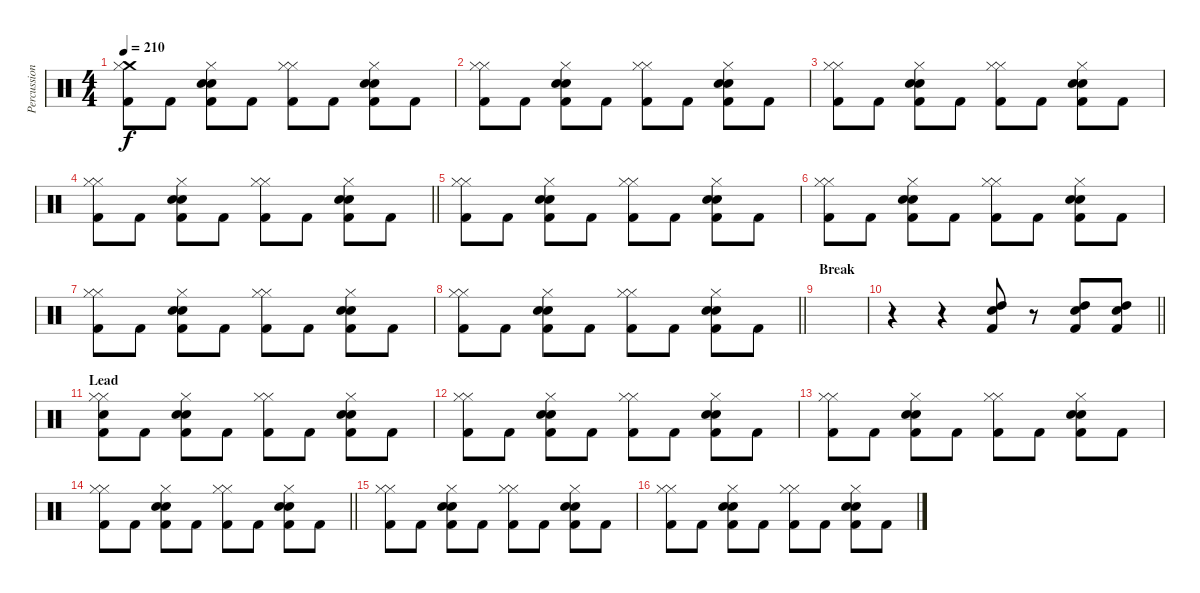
\track ("Percussion" "Percussion") {instrument percussion}
\staff {score}
\articulation defaults
\ts (4 4)
\tempo 210
\clef neutral
\ks c
("Crash medium (hit)" "Hi-Hat (closed)" "Kick (hit) 2").8{dy f} "Kick (hit) 2".8 ("Hi-Hat (closed)" "Snare (hit) 2" "Electric Snare (hit)" "Kick (hit) 2").8 "Kick (hit) 2".8 ("Hi-Hat (closed)" "Hi-Hat (closed)" "Kick (hit) 2").8 "Kick (hit) 2".8 ("Hi-Hat (closed)" "Snare (hit) 2" "Electric Snare (hit)" "Kick (hit) 2").8 "Kick (hit) 2".8 |
("Hi-Hat (closed)" "Hi-Hat (closed)" "Kick (hit) 2").8 "Kick (hit) 2".8 ("Hi-Hat (closed)" "Snare (hit) 2" "Electric Snare (hit)" "Kick (hit) 2").8 "Kick (hit) 2".8 ("Hi-Hat (closed)" "Hi-Hat (closed)" "Kick (hit) 2").8 "Kick (hit) 2".8 ("Hi-Hat (closed)" "Snare (hit) 2" "Electric Snare (hit)" "Kick (hit) 2").8 "Kick (hit) 2".8 |
("Hi-Hat (closed)" "Hi-Hat (closed)" "Kick (hit) 2").8 "Kick (hit) 2".8 ("Hi-Hat (closed)" "Snare (hit) 2" "Electric Snare (hit)" "Kick (hit) 2").8 "Kick (hit) 2".8 ("Hi-Hat (closed)" "Hi-Hat (closed)" "Kick (hit) 2").8 "Kick (hit) 2".8 ("Hi-Hat (closed)" "Snare (hit) 2" "Electric Snare (hit)" "Kick (hit) 2").8 "Kick (hit) 2".8 |
\barLineRight lightlight
("Hi-Hat (closed)" "Hi-Hat (closed)" "Kick (hit) 2").8 "Kick (hit) 2".8 ("Hi-Hat (closed)" "Snare (hit) 2" "Electric Snare (hit)" "Kick (hit) 2").8 "Kick (hit) 2".8 ("Hi-Hat (closed)" "Hi-Hat (closed)" "Kick (hit) 2").8 "Kick (hit) 2".8 ("Hi-Hat (closed)" "Snare (hit) 2" "Electric Snare (hit)" "Kick (hit) 2").8 "Kick (hit) 2".8 |
("Hi-Hat (closed)" "Hi-Hat (closed)" "Kick (hit) 2").8 "Kick (hit) 2".8 ("Hi-Hat (closed)" "Snare (hit) 2" "Electric Snare (hit)" "Kick (hit) 2").8 "Kick (hit) 2".8 ("Hi-Hat (closed)" "Hi-Hat (closed)" "Kick (hit) 2").8 "Kick (hit) 2".8 ("Hi-Hat (closed)" "Snare (hit) 2" "Electric Snare (hit)" "Kick (hit) 2").8 "Kick (hit) 2".8 |
("Hi-Hat (closed)" "Hi-Hat (closed)" "Kick (hit) 2").8 "Kick (hit) 2".8 ("Hi-Hat (closed)" "Snare (hit) 2" "Electric Snare (hit)" "Kick (hit) 2").8 "Kick (hit) 2".8 ("Hi-Hat (closed)" "Hi-Hat (closed)" "Kick (hit) 2").8 "Kick (hit) 2".8 ("Hi-Hat (closed)" "Snare (hit) 2" "Electric Snare (hit)" "Kick (hit) 2").8 "Kick (hit) 2".8 |
("Hi-Hat (closed)" "Hi-Hat (closed)" "Kick (hit) 2").8 "Kick (hit) 2".8 ("Hi-Hat (closed)" "Snare (hit) 2" "Electric Snare (hit)" "Kick (hit) 2").8 "Kick (hit) 2".8 ("Hi-Hat (closed)" "Hi-Hat (closed)" "Kick (hit) 2").8 "Kick (hit) 2".8 ("Hi-Hat (closed)" "Snare (hit) 2" "Electric Snare (hit)" "Kick (hit) 2").8 "Kick (hit) 2".8 |
\barLineRight lightlight
("Hi-Hat (closed)" "Hi-Hat (closed)" "Kick (hit) 2").8 "Kick (hit) 2".8 ("Hi-Hat (closed)" "Snare (hit) 2" "Electric Snare (hit)" "Kick (hit) 2").8 "Kick (hit) 2".8 ("Hi-Hat (closed)" "Hi-Hat (closed)" "Kick (hit) 2").8 "Kick (hit) 2".8 ("Hi-Hat (closed)" "Snare (hit) 2" "Electric Snare (hit)" "Kick (hit) 2").8 "Kick (hit) 2".8 |
\section ("" "Break")
|
\barLineRight lightlight
r.4 r.4 ("Electric Snare (hit)" "High Tom (hit)" "Kick (hit) 2").8 r.8 ("Electric Snare (hit)" "High Tom (hit)" "Kick (hit) 2").8 ("Electric Snare (hit)" "High Tom (hit)" "Kick (hit) 2").8 |
\section ("" "Lead")
("Hi-Hat (closed)" "Hi-Hat (closed)" "Snare (hit)" "Kick (hit) 2").8 "Kick (hit) 2".8 ("Hi-Hat (closed)" "Snare (hit) 2" "Electric Snare (hit)" "Kick (hit) 2").8 "Kick (hit) 2".8 ("Hi-Hat (closed)" "Hi-Hat (closed)" "Kick (hit) 2").8 "Kick (hit) 2".8 ("Hi-Hat (closed)" "Snare (hit) 2" "Electric Snare (hit)" "Kick (hit) 2").8 "Kick (hit) 2".8 |
("Hi-Hat (closed)" "Hi-Hat (closed)" "Kick (hit) 2").8 "Kick (hit) 2".8 ("Hi-Hat (closed)" "Snare (hit) 2" "Electric Snare (hit)" "Kick (hit) 2").8 "Kick (hit) 2".8 ("Hi-Hat (closed)" "Hi-Hat (closed)" "Kick (hit) 2").8 "Kick (hit) 2".8 ("Hi-Hat (closed)" "Snare (hit) 2" "Electric Snare (hit)" "Kick (hit) 2").8 "Kick (hit) 2".8 |
("Hi-Hat (closed)" "Hi-Hat (closed)" "Kick (hit) 2").8 "Kick (hit) 2".8 ("Hi-Hat (closed)" "Snare (hit) 2" "Electric Snare (hit)" "Kick (hit) 2").8 "Kick (hit) 2".8 ("Hi-Hat (closed)" "Hi-Hat (closed)" "Kick (hit) 2").8 "Kick (hit) 2".8 ("Hi-Hat (closed)" "Snare (hit) 2" "Electric Snare (hit)" "Kick (hit) 2").8 "Kick (hit) 2".8 |
\barLineRight lightlight
("Hi-Hat (closed)" "Hi-Hat (closed)" "Kick (hit) 2").8 "Kick (hit) 2".8 ("Hi-Hat (closed)" "Snare (hit) 2" "Electric Snare (hit)" "Kick (hit) 2").8 "Kick (hit) 2".8 ("Hi-Hat (closed)" "Hi-Hat (closed)" "Kick (hit) 2").8 "Kick (hit) 2".8 ("Hi-Hat (closed)" "Snare (hit) 2" "Electric Snare (hit)" "Kick (hit) 2").8 "Kick (hit) 2".8 |
("Hi-Hat (closed)" "Hi-Hat (closed)" "Kick (hit) 2").8 "Kick (hit) 2".8 ("Hi-Hat (closed)" "Snare (hit) 2" "Electric Snare (hit)" "Kick (hit) 2").8 "Kick (hit) 2".8 ("Hi-Hat (closed)" "Hi-Hat (closed)" "Kick (hit) 2").8 "Kick (hit) 2".8 ("Hi-Hat (closed)" "Snare (hit) 2" "Electric Snare (hit)" "Kick (hit) 2").8 "Kick (hit) 2".8 |
("Hi-Hat (closed)" "Hi-Hat (closed)" "Kick (hit) 2").8 "Kick (hit) 2".8 ("Hi-Hat (closed)" "Snare (hit) 2" "Electric Snare (hit)" "Kick (hit) 2").8 "Kick (hit) 2".8 ("Hi-Hat (closed)" "Hi-Hat (closed)" "Kick (hit) 2").8 "Kick (hit) 2".8 ("Hi-Hat (closed)" "Snare (hit) 2" "Electric Snare (hit)" "Kick (hit) 2").8 "Kick (hit) 2".8
